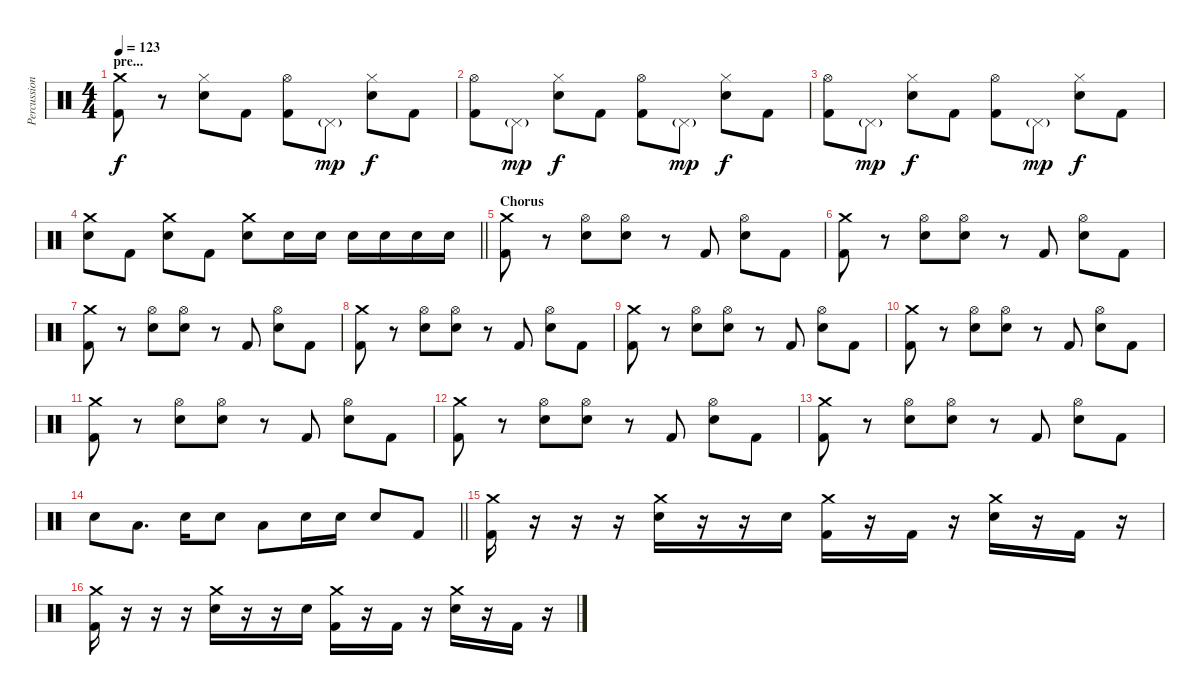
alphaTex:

\track ("Percussion" "Percussion") {instrument percussion}
\staff {score}
\articulation defaults
\ts (4 4)
\section ("" "pre...")
\tempo 123
\clef neutral
\ks c
("Crash medium (hit)" "Kick (hit) 2").8{dy f} r.8 ("Hi-Hat (closed)" "Electric Snare (hit)").8 "Kick (hit) 2".8 ("Hi-Hat (open)" "Kick (hit) 2").8 "Pedal Hi-Hat (hit)"{g}.8{dy mp} ("Hi-Hat (closed)" "Electric Snare (hit)").8{dy f} "Kick (hit) 2".8 |
("Hi-Hat (open)" "Kick (hit) 2").8 "Pedal Hi-Hat (hit)"{g}.8{dy mp} ("Hi-Hat (closed)" "Electric Snare (hit)").8{dy f} "Kick (hit) 2".8 ("Hi-Hat (open)" "Kick (hit) 2").8 "Pedal Hi-Hat (hit)"{g}.8{dy mp} ("Hi-Hat (closed)" "Electric Snare (hit)").8{dy f} "Kick (hit) 2".8 |
("Hi-Hat (open)" "Kick (hit) 2").8 "Pedal Hi-Hat (hit)"{g}.8{dy mp} ("Hi-Hat (closed)" "Electric Snare (hit)").8{dy f} "Kick (hit) 2".8 ("Hi-Hat (open)" "Kick (hit) 2").8 "Pedal Hi-Hat (hit)"{g}.8{dy mp} ("Hi-Hat (closed)" "Electric Snare (hit)").8{dy f} "Kick (hit) 2".8 |
\barLineRight lightlight
("Crash medium (hit)" "Electric Snare (hit)").8 "Kick (hit) 2".8 ("Crash medium (hit)" "Electric Snare (hit)").8 "Kick (hit) 2".8 ("Crash medium (hit)" "Electric Snare (hit)").8 "Electric Snare (hit)".16 "Electric Snare (hit)".16 "Electric Snare (hit)".16 "Electric Snare (hit)".16 "Electric Snare (hit)".16 "Electric Snare (hit)".16 |
\section ("" "Chorus")
("Crash medium (hit)" "Kick (hit) 2").8 r.8 ("Hi-Hat (open)" "Electric Snare (hit)").8 ("Hi-Hat (open)" "Electric Snare (hit)").8 r.8 "Kick (hit) 2".8 ("Hi-Hat (open)" "Electric Snare (hit)").8 "Kick (hit) 2".8 |
("Crash medium (hit)" "Kick (hit) 2").8 r.8 ("Hi-Hat (open)" "Electric Snare (hit)").8 ("Hi-Hat (open)" "Electric Snare (hit)").8 r.8 "Kick (hit) 2".8 ("Hi-Hat (open)" "Electric Snare (hit)").8 "Kick (hit) 2".8 |
("Crash medium (hit)" "Kick (hit) 2").8 r.8 ("Hi-Hat (open)" "Electric Snare (hit)").8 ("Hi-Hat (open)" "Electric Snare (hit)").8 r.8 "Kick (hit) 2".8 ("Hi-Hat (open)" "Electric Snare (hit)").8 "Kick (hit) 2".8 |
("Crash medium (hit)" "Kick (hit) 2").8 r.8 ("Hi-Hat (open)" "Electric Snare (hit)").8 ("Hi-Hat (open)" "Electric Snare (hit)").8 r.8 "Kick (hit) 2".8 ("Hi-Hat (open)" "Electric Snare (hit)").8 "Kick (hit) 2".8 |
("Crash medium (hit)" "Kick (hit) 2").8 r.8 ("Hi-Hat (open)" "Electric Snare (hit)").8 ("Hi-Hat (open)" "Electric Snare (hit)").8 r.8 "Kick (hit) 2".8 ("Hi-Hat (open)" "Electric Snare (hit)").8 "Kick (hit) 2".8 |
("Crash medium (hit)" "Kick (hit) 2").8 r.8 ("Hi-Hat (open)" "Electric Snare (hit)").8 ("Hi-Hat (open)" "Electric Snare (hit)").8 r.8 "Kick (hit) 2".8 ("Hi-Hat (open)" "Electric Snare (hit)").8 "Kick (hit) 2".8 |
("Crash medium (hit)" "Kick (hit) 2").8 r.8 ("Hi-Hat (open)" "Electric Snare (hit)").8 ("Hi-Hat (open)" "Electric Snare (hit)").8 r.8 "Kick (hit) 2".8 ("Hi-Hat (open)" "Electric Snare (hit)").8 "Kick (hit) 2".8 |
("Crash medium (hit)" "Kick (hit) 2").8 r.8 ("Hi-Hat (open)" "Electric Snare (hit)").8 ("Hi-Hat (open)" "Electric Snare (hit)").8 r.8 "Kick (hit) 2".8 ("Hi-Hat (open)" "Electric Snare (hit)").8 "Kick (hit) 2".8 |
("Crash medium (hit)" "Kick (hit) 2").8 r.8 ("Hi-Hat (open)" "Electric Snare (hit)").8 ("Hi-Hat (open)" "Electric Snare (hit)").8 r.8 "Kick (hit) 2".8 ("Hi-Hat (open)" "Electric Snare (hit)").8 "Kick (hit) 2".8 |
\barLineRight lightlight "Electric Snare (hit)".8 "Low Tom (hit)".8{d} "Electric Snare (hit)".16 "Electric Snare (hit)".8 "Low Tom (hit)".8 "Electric Snare (hit)".16 "Electric Snare (hit)".16 "Electric Snare (hit)".8 "Kick (hit) 2".8
|
\section ("" "")
("Crash medium (hit)" "Kick (hit) 2").16 r.16 r.16 r.16 ("Crash medium (hit)" "Electric Snare (hit)").16 r.16 r.16 "Electric Snare (hit)".16 ("Crash medium (hit)" "Kick (hit) 2").16 r.16 "Kick (hit) 2".16 r.16 ("Crash medium (hit)" "Electric Snare (hit)").16 r.16 "Kick (hit) 2".16 r.16 |
("Crash medium (hit)" "Kick (hit) 2").16 r.16 r.16 r.16 ("Crash medium (hit)" "Electric Snare (hit)").16 r.16 r.16 "Electric Snare (hit)".16 ("Crash medium (hit)" "Kick (hit) 2").16 r.16 "Kick (hit) 2".16 r.16 ("Crash medium (hit)" "Electric Snare (hit)").16 r.16 "Kick (hit) 2".16 r.16
